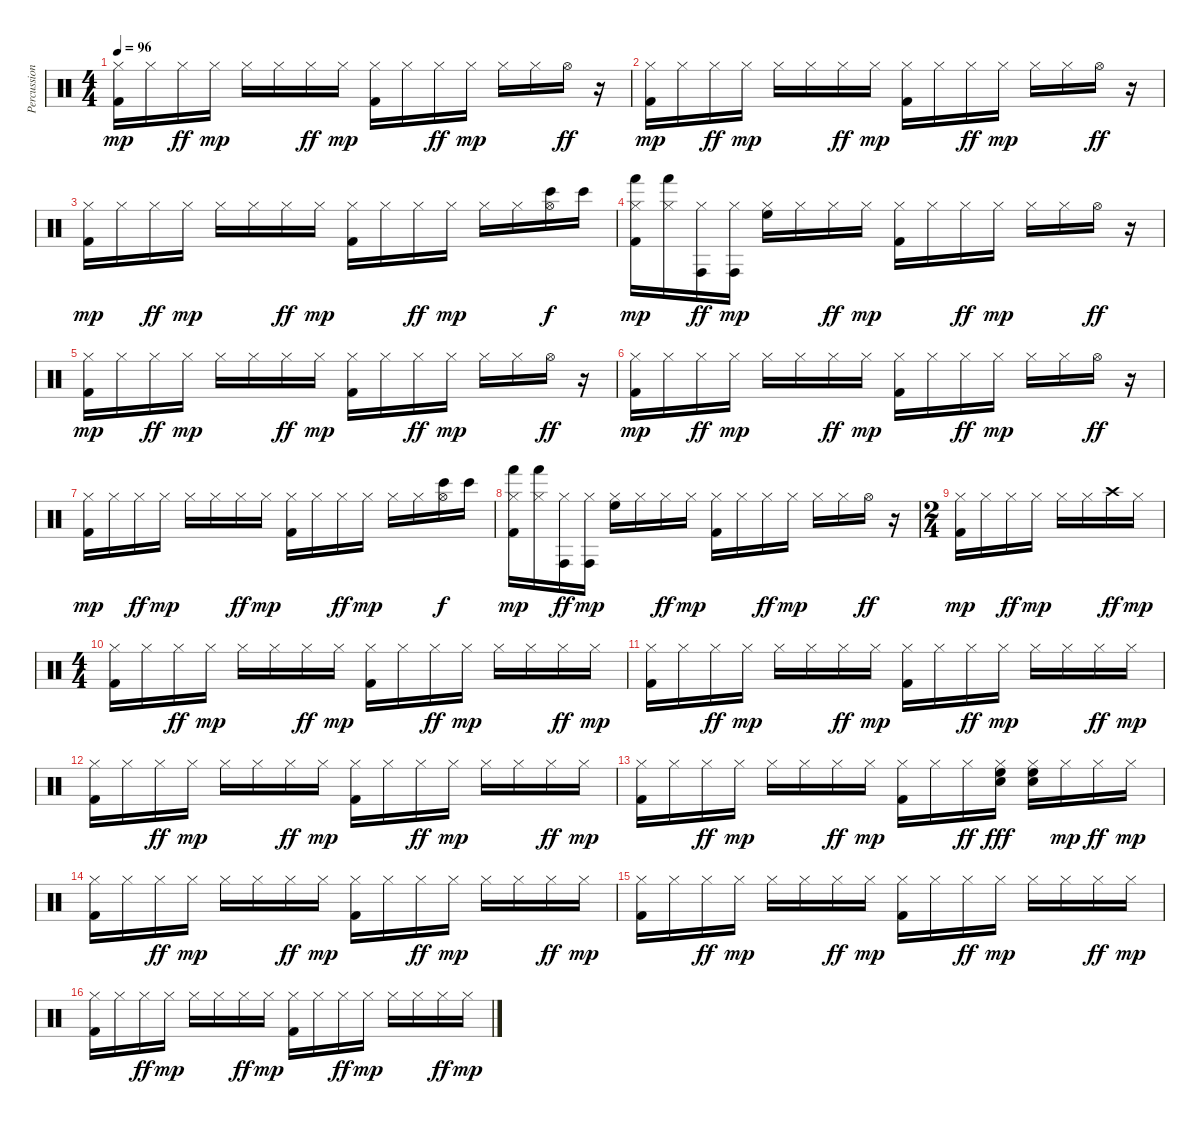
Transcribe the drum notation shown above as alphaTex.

\track ("Percussions" "Percussion") {instrument percussion}
\staff {score}
\articulation defaults
\ts (4 4)
\tempo 96
\clef neutral
\ks c
("Hi-Hat (closed)" "Kick (hit) 2").16{dy mp} "Hi-Hat (closed)".16 "Hi-Hat (closed)".16{dy ff} "Hi-Hat (closed)".16{dy mp} "Hi-Hat (closed)".16 "Hi-Hat (closed)".16 "Hi-Hat (closed)".16{dy ff} "Hi-Hat (closed)".16{dy mp} ("Hi-Hat (closed)" "Kick (hit) 2").16 "Hi-Hat (closed)".16 "Hi-Hat (closed)".16{dy ff} "Hi-Hat (closed)".16{dy mp} "Hi-Hat (closed)".16 "Hi-Hat (closed)".16 "Hi-Hat (open)".16{dy ff} r.16 |
("Hi-Hat (closed)" "Kick (hit) 2").16{dy mp} "Hi-Hat (closed)".16 "Hi-Hat (closed)".16{dy ff} "Hi-Hat (closed)".16{dy mp} "Hi-Hat (closed)".16 "Hi-Hat (closed)".16 "Hi-Hat (closed)".16{dy ff} "Hi-Hat (closed)".16{dy mp} ("Hi-Hat (closed)" "Kick (hit) 2").16 "Hi-Hat (closed)".16 "Hi-Hat (closed)".16{dy ff} "Hi-Hat (closed)".16{dy mp} "Hi-Hat (closed)".16 "Hi-Hat (closed)".16 "Hi-Hat (open)".16{dy ff} r.16 |
("Hi-Hat (closed)" "Kick (hit) 2").16{dy mp} "Hi-Hat (closed)".16 "Hi-Hat (closed)".16{dy ff} "Hi-Hat (closed)".16{dy mp} "Hi-Hat (closed)".16 "Hi-Hat (closed)".16 "Hi-Hat (closed)".16{dy ff} "Hi-Hat (closed)".16{dy mp} ("Hi-Hat (closed)" "Kick (hit) 2").16 "Hi-Hat (closed)".16 "Hi-Hat (closed)".16{dy ff} "Hi-Hat (closed)".16{dy mp} "Hi-Hat (closed)".16 "Hi-Hat (closed)".16 ("Hi-Hat (open)" "Bongo High (hit)").16{dy f} "Bongo High (hit)".16 |
("Hi-Hat (closed)" "Hand (hit)" "Kick (hit) 2").16{dy mp} ("Hi-Hat (closed)" "Hand (hit)").16 ("Hi-Hat (closed)" "Conga high (hit)").16{dy ff} ("Hi-Hat (closed)" "Conga high (hit)").16{dy mp} ("Hi-Hat (closed)" "High Floor Tom (hit)").16 "Hi-Hat (closed)".16 "Hi-Hat (closed)".16{dy ff} "Hi-Hat (closed)".16{dy mp} ("Hi-Hat (closed)" "Kick (hit) 2").16 "Hi-Hat (closed)".16 "Hi-Hat (closed)".16{dy ff} "Hi-Hat (closed)".16{dy mp} "Hi-Hat (closed)".16 "Hi-Hat (closed)".16 "Hi-Hat (open)".16{dy ff} r.16 |
("Hi-Hat (closed)" "Kick (hit) 2").16{dy mp} "Hi-Hat (closed)".16 "Hi-Hat (closed)".16{dy ff} "Hi-Hat (closed)".16{dy mp} "Hi-Hat (closed)".16 "Hi-Hat (closed)".16 "Hi-Hat (closed)".16{dy ff} "Hi-Hat (closed)".16{dy mp} ("Hi-Hat (closed)" "Kick (hit) 2").16 "Hi-Hat (closed)".16 "Hi-Hat (closed)".16{dy ff} "Hi-Hat (closed)".16{dy mp} "Hi-Hat (closed)".16 "Hi-Hat (closed)".16 "Hi-Hat (open)".16{dy ff} r.16 |
("Hi-Hat (closed)" "Kick (hit) 2").16{dy mp} "Hi-Hat (closed)".16 "Hi-Hat (closed)".16{dy ff} "Hi-Hat (closed)".16{dy mp} "Hi-Hat (closed)".16 "Hi-Hat (closed)".16 "Hi-Hat (closed)".16{dy ff} "Hi-Hat (closed)".16{dy mp} ("Hi-Hat (closed)" "Kick (hit) 2").16 "Hi-Hat (closed)".16 "Hi-Hat (closed)".16{dy ff} "Hi-Hat (closed)".16{dy mp} "Hi-Hat (closed)".16 "Hi-Hat (closed)".16 "Hi-Hat (open)".16{dy ff} r.16 |
("Hi-Hat (closed)" "Kick (hit) 2").16{dy mp} "Hi-Hat (closed)".16 "Hi-Hat (closed)".16{dy ff} "Hi-Hat (closed)".16{dy mp} "Hi-Hat (closed)".16 "Hi-Hat (closed)".16 "Hi-Hat (closed)".16{dy ff} "Hi-Hat (closed)".16{dy mp} ("Hi-Hat (closed)" "Kick (hit) 2").16 "Hi-Hat (closed)".16 "Hi-Hat (closed)".16{dy ff} "Hi-Hat (closed)".16{dy mp} "Hi-Hat (closed)".16 "Hi-Hat (closed)".16 ("Hi-Hat (open)" "Bongo High (hit)").16{dy f} "Bongo High (hit)".16 |
("Hi-Hat (closed)" "Hand (hit)" "Kick (hit) 2").16{dy mp} ("Hi-Hat (closed)" "Hand (hit)").16 ("Hi-Hat (closed)" "Conga high (hit)").16{dy ff} ("Hi-Hat (closed)" "Conga high (hit)").16{dy mp} ("Hi-Hat (closed)" "High Floor Tom (hit)").16 "Hi-Hat (closed)".16 "Hi-Hat (closed)".16{dy ff} "Hi-Hat (closed)".16{dy mp} ("Hi-Hat (closed)" "Kick (hit) 2").16 "Hi-Hat (closed)".16 "Hi-Hat (closed)".16{dy ff} "Hi-Hat (closed)".16{dy mp} "Hi-Hat (closed)".16 "Hi-Hat (closed)".16 "Hi-Hat (open)".16{dy ff} r.16 |
\ts (2 4)
("Hi-Hat (closed)" "Kick (hit) 2").16{dy mp} "Hi-Hat (closed)".16 "Hi-Hat (closed)".16{dy ff} "Hi-Hat (closed)".16{dy mp} "Hi-Hat (closed)".16 "Hi-Hat (closed)".16 "Crash high (hit)".16{dy ff} "Hi-Hat (closed)".16{dy mp} |
\ts (4 4)
("Hi-Hat (closed)" "Kick (hit) 2").16 "Hi-Hat (closed)".16 "Hi-Hat (closed)".16{dy ff} "Hi-Hat (closed)".16{dy mp} "Hi-Hat (closed)".16 "Hi-Hat (closed)".16 "Hi-Hat (closed)".16{dy ff} "Hi-Hat (closed)".16{dy mp} ("Hi-Hat (closed)" "Kick (hit) 2").16 "Hi-Hat (closed)".16 "Hi-Hat (closed)".16{dy ff} "Hi-Hat (closed)".16{dy mp} "Hi-Hat (closed)".16 "Hi-Hat (closed)".16 "Hi-Hat (closed)".16{dy ff} "Hi-Hat (closed)".16{dy mp} |
("Hi-Hat (closed)" "Kick (hit) 2").16 "Hi-Hat (closed)".16 "Hi-Hat (closed)".16{dy ff} "Hi-Hat (closed)".16{dy mp} "Hi-Hat (closed)".16 "Hi-Hat (closed)".16 "Hi-Hat (closed)".16{dy ff} "Hi-Hat (closed)".16{dy mp} ("Hi-Hat (closed)" "Kick (hit) 2").16 "Hi-Hat (closed)".16 "Hi-Hat (closed)".16{dy ff} "Hi-Hat (closed)".16{dy mp} "Hi-Hat (closed)".16 "Hi-Hat (closed)".16 "Hi-Hat (closed)".16{dy ff} "Hi-Hat (closed)".16{dy mp} |
("Hi-Hat (closed)" "Kick (hit) 2").16 "Hi-Hat (closed)".16 "Hi-Hat (closed)".16{dy ff} "Hi-Hat (closed)".16{dy mp} "Hi-Hat (closed)".16 "Hi-Hat (closed)".16 "Hi-Hat (closed)".16{dy ff} "Hi-Hat (closed)".16{dy mp} ("Hi-Hat (closed)" "Kick (hit) 2").16 "Hi-Hat (closed)".16 "Hi-Hat (closed)".16{dy ff} "Hi-Hat (closed)".16{dy mp} "Hi-Hat (closed)".16 "Hi-Hat (closed)".16 "Hi-Hat (closed)".16{dy ff} "Hi-Hat (closed)".16{dy mp} |
("Hi-Hat (closed)" "Kick (hit) 2").16 "Hi-Hat (closed)".16 "Hi-Hat (closed)".16{dy ff} "Hi-Hat (closed)".16{dy mp} "Hi-Hat (closed)".16 "Hi-Hat (closed)".16 "Hi-Hat (closed)".16{dy ff} "Hi-Hat (closed)".16{dy mp} ("Hi-Hat (closed)" "Kick (hit) 2").16 "Hi-Hat (closed)".16 "Hi-Hat (closed)".16{dy ff} ("Hi-Hat (closed)" "Electric Snare (hit)" "High Floor Tom (hit)").16{dy fff} ("Hi-Hat (closed)" "Electric Snare (hit)" "High Floor Tom (hit)").16 "Hi-Hat (closed)".16{dy mp} "Hi-Hat (closed)".16{dy ff} "Hi-Hat (closed)".16{dy mp} |
("Hi-Hat (closed)" "Kick (hit) 2").16 "Hi-Hat (closed)".16 "Hi-Hat (closed)".16{dy ff} "Hi-Hat (closed)".16{dy mp} "Hi-Hat (closed)".16 "Hi-Hat (closed)".16 "Hi-Hat (closed)".16{dy ff} "Hi-Hat (closed)".16{dy mp} ("Hi-Hat (closed)" "Kick (hit) 2").16 "Hi-Hat (closed)".16 "Hi-Hat (closed)".16{dy ff} "Hi-Hat (closed)".16{dy mp} "Hi-Hat (closed)".16 "Hi-Hat (closed)".16 "Hi-Hat (closed)".16{dy ff} "Hi-Hat (closed)".16{dy mp} |
("Hi-Hat (closed)" "Kick (hit) 2").16 "Hi-Hat (closed)".16 "Hi-Hat (closed)".16{dy ff} "Hi-Hat (closed)".16{dy mp} "Hi-Hat (closed)".16 "Hi-Hat (closed)".16 "Hi-Hat (closed)".16{dy ff} "Hi-Hat (closed)".16{dy mp} ("Hi-Hat (closed)" "Kick (hit) 2").16 "Hi-Hat (closed)".16 "Hi-Hat (closed)".16{dy ff} "Hi-Hat (closed)".16{dy mp} "Hi-Hat (closed)".16 "Hi-Hat (closed)".16 "Hi-Hat (closed)".16{dy ff} "Hi-Hat (closed)".16{dy mp} |
("Hi-Hat (closed)" "Kick (hit) 2").16 "Hi-Hat (closed)".16 "Hi-Hat (closed)".16{dy ff} "Hi-Hat (closed)".16{dy mp} "Hi-Hat (closed)".16 "Hi-Hat (closed)".16 "Hi-Hat (closed)".16{dy ff} "Hi-Hat (closed)".16{dy mp} ("Hi-Hat (closed)" "Kick (hit) 2").16 "Hi-Hat (closed)".16 "Hi-Hat (closed)".16{dy ff} "Hi-Hat (closed)".16{dy mp} "Hi-Hat (closed)".16 "Hi-Hat (closed)".16 "Hi-Hat (closed)".16{dy ff} "Hi-Hat (closed)".16{dy mp}
